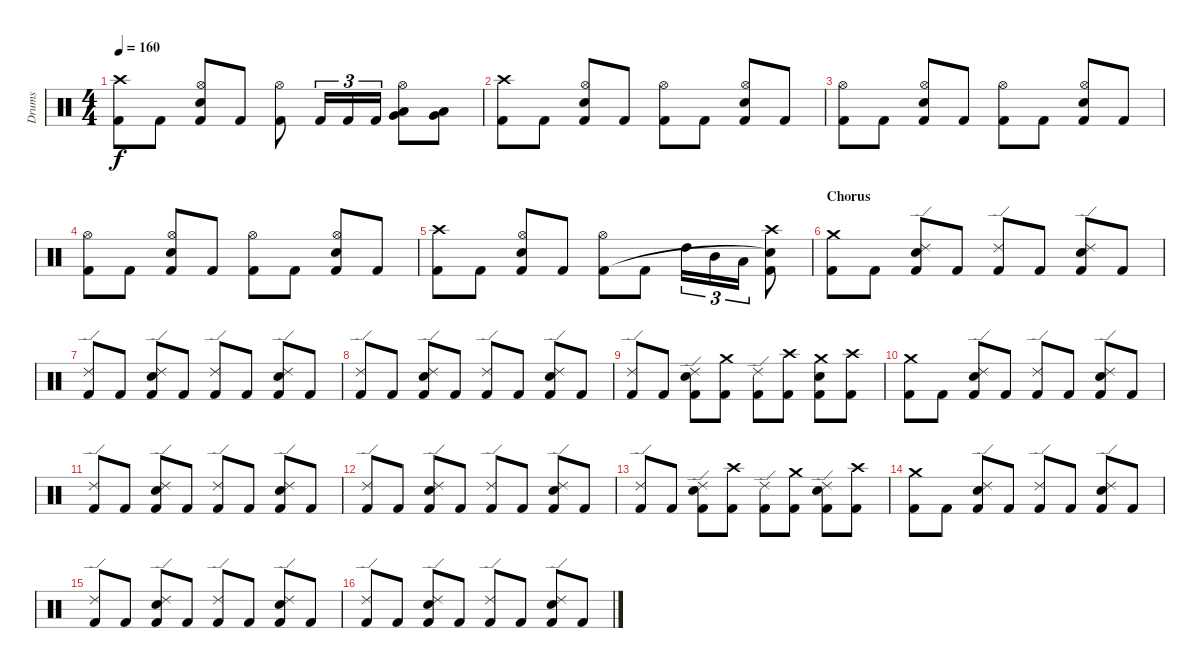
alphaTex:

\track ("Drums" "Drums") {instrument percussion}
\staff {score}
\articulation defaults
\ts (4 4)
\tempo 160
\clef neutral
\ks c
("Crash high (hit)" "Kick (hit) 2").8{dy f} "Kick (hit) 2".8 ("Hi-Hat (open)" "Electric Snare (hit)" "Kick (hit) 2").8 "Kick (hit) 2".8 ("Hi-Hat (open)" "Kick (hit) 2").8 "Kick (hit) 2".16{tu (3 2)} "Kick (hit) 2".16{tu (3 2)} "Kick (hit) 2".16{tu (3 2)} ("Hi-Hat (open)" "Very Low Tom (hit)" "Low Tom (hit)").8 ("Very Low Tom (hit)" "Low Tom (hit)").8 |
("Crash high (hit)" "Kick (hit) 2").8 "Kick (hit) 2".8 ("Hi-Hat (open)" "Electric Snare (hit)" "Kick (hit) 2").8 "Kick (hit) 2".8 ("Hi-Hat (open)" "Kick (hit) 2").8 "Kick (hit) 2".8 ("Hi-Hat (open)" "Electric Snare (hit)" "Kick (hit) 2").8 "Kick (hit) 2".8 |
("Hi-Hat (open)" "Kick (hit) 2").8 "Kick (hit) 2".8 ("Hi-Hat (open)" "Electric Snare (hit)" "Kick (hit) 2").8 "Kick (hit) 2".8 ("Hi-Hat (open)" "Kick (hit) 2").8 "Kick (hit) 2".8 ("Hi-Hat (open)" "Electric Snare (hit)" "Kick (hit) 2").8 "Kick (hit) 2".8 |
("Hi-Hat (open)" "Kick (hit) 2").8 "Kick (hit) 2".8 ("Hi-Hat (open)" "Electric Snare (hit)" "Kick (hit) 2").8 "Kick (hit) 2".8 ("Hi-Hat (open)" "Kick (hit) 2").8 "Kick (hit) 2".8 ("Hi-Hat (open)" "Electric Snare (hit)" "Kick (hit) 2").8 "Kick (hit) 2".8 |
("Crash high (hit)" "Kick (hit) 2").8 "Kick (hit) 2".8 ("Hi-Hat (open)" "Electric Snare (hit)" "Kick (hit) 2").8 "Kick (hit) 2".8 ("Hi-Hat (open)" "Kick (hit) 2").8 "Kick (hit) 2".8 "High Tom (hit)".16{tu (3 2)} "Mid Tom (hit)".16{tu (3 2)} "Low Tom (hit)".16{tu (3 2)} ("Crash high (hit)" "Snare (hit)"{t} "Kick (hit) 2").8 |
\section ("" "Chorus")
("Crash medium (hit)" "Kick (hit) 2").8 "Kick (hit) 2".8 ("Ride (edge) 2" "Electric Snare (hit)" "Kick (hit) 2").8 "Kick (hit) 2".8 ("Ride (edge) 2" "Kick (hit) 2").8 "Kick (hit) 2".8 ("Ride (edge) 2" "Electric Snare (hit)" "Kick (hit) 2").8 "Kick (hit) 2".8 |
("Ride (edge) 2" "Kick (hit) 2").8 "Kick (hit) 2".8 ("Ride (edge) 2" "Electric Snare (hit)" "Kick (hit) 2").8 "Kick (hit) 2".8 ("Ride (edge) 2" "Kick (hit) 2").8 "Kick (hit) 2".8 ("Ride (edge) 2" "Electric Snare (hit)" "Kick (hit) 2").8 "Kick (hit) 2".8 |
("Ride (edge) 2" "Kick (hit) 2").8 "Kick (hit) 2".8 ("Ride (edge) 2" "Electric Snare (hit)" "Kick (hit) 2").8 "Kick (hit) 2".8 ("Ride (edge) 2" "Kick (hit) 2").8 "Kick (hit) 2".8 ("Ride (edge) 2" "Electric Snare (hit)" "Kick (hit) 2").8 "Kick (hit) 2".8 |
("Ride (edge) 2" "Kick (hit) 2").8 "Kick (hit) 2".8 ("Ride (edge) 2" "Electric Snare (hit)" "Kick (hit) 2").8 ("Crash medium (hit)" "Kick (hit) 2").8 ("Ride (edge) 2" "Kick (hit) 2").8 ("Crash high (hit)" "Kick (hit) 2").8 ("Crash medium (hit)" "Electric Snare (hit)" "Kick (hit) 2").8 ("Crash high (hit)" "Kick (hit) 2").8 |
("Crash medium (hit)" "Kick (hit) 2").8 "Kick (hit) 2".8 ("Ride (edge) 2" "Electric Snare (hit)" "Kick (hit) 2").8 "Kick (hit) 2".8 ("Ride (edge) 2" "Kick (hit) 2").8 "Kick (hit) 2".8 ("Ride (edge) 2" "Electric Snare (hit)" "Kick (hit) 2").8 "Kick (hit) 2".8 |
("Ride (edge) 2" "Kick (hit) 2").8 "Kick (hit) 2".8 ("Ride (edge) 2" "Electric Snare (hit)" "Kick (hit) 2").8 "Kick (hit) 2".8 ("Ride (edge) 2" "Kick (hit) 2").8 "Kick (hit) 2".8 ("Ride (edge) 2" "Electric Snare (hit)" "Kick (hit) 2").8 "Kick (hit) 2".8 |
("Ride (edge) 2" "Kick (hit) 2").8 "Kick (hit) 2".8 ("Ride (edge) 2" "Electric Snare (hit)" "Kick (hit) 2").8 "Kick (hit) 2".8 ("Ride (edge) 2" "Kick (hit) 2").8 "Kick (hit) 2".8 ("Ride (edge) 2" "Electric Snare (hit)" "Kick (hit) 2").8 "Kick (hit) 2".8 |
("Ride (edge) 2" "Kick (hit) 2").8 "Kick (hit) 2".8 ("Ride (edge) 2" "Electric Snare (hit)" "Kick (hit) 2").8 ("Crash high (hit)" "Kick (hit) 2").8 ("Ride (edge) 2" "Kick (hit) 2").8 ("Crash medium (hit)" "Kick (hit) 2").8 ("Ride (edge) 2" "Electric Snare (hit)" "Kick (hit) 2").8 ("Crash high (hit)" "Kick (hit) 2").8 |
("Crash medium (hit)" "Kick (hit) 2").8 "Kick (hit) 2".8 ("Ride (edge) 2" "Electric Snare (hit)" "Kick (hit) 2").8 "Kick (hit) 2".8 ("Ride (edge) 2" "Kick (hit) 2").8 "Kick (hit) 2".8 ("Ride (edge) 2" "Electric Snare (hit)" "Kick (hit) 2").8 "Kick (hit) 2".8 |
("Ride (edge) 2" "Kick (hit) 2").8 "Kick (hit) 2".8 ("Ride (edge) 2" "Electric Snare (hit)" "Kick (hit) 2").8 "Kick (hit) 2".8 ("Ride (edge) 2" "Kick (hit) 2").8 "Kick (hit) 2".8 ("Ride (edge) 2" "Electric Snare (hit)" "Kick (hit) 2").8 "Kick (hit) 2".8 |
("Ride (edge) 2" "Kick (hit) 2").8 "Kick (hit) 2".8 ("Ride (edge) 2" "Electric Snare (hit)" "Kick (hit) 2").8 "Kick (hit) 2".8 ("Ride (edge) 2" "Kick (hit) 2").8 "Kick (hit) 2".8 ("Ride (edge) 2" "Electric Snare (hit)" "Kick (hit) 2").8 "Kick (hit) 2".8
